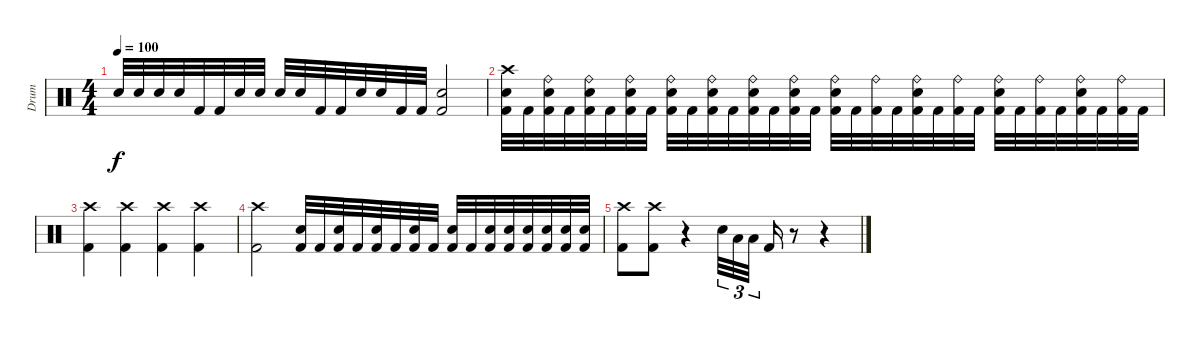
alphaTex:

\track ("Drum" "Drum") {instrument percussion}
\staff {score}
\articulation defaults
\ts (4 4)
\tempo 100
\clef neutral
\ks c "Snare (hit) 2".32{dy f} "Snare (hit) 2".32 "Snare (hit) 2".32 "Snare (hit) 2".32 "Kick (hit) 2".32 "Kick (hit) 2".32 "Snare (hit) 2".32 "Snare (hit) 2".32 "Snare (hit) 2".32 "Snare (hit) 2".32 "Kick (hit) 2".32 "Kick (hit) 2".32 "Snare (hit) 2".32 "Snare (hit) 2".32 "Kick (hit) 2".32 "Kick (hit) 2".32
("Snare (hit) 2" "Kick (hit) 2").2 |
("Crash high (hit)" "Snare (hit) 2" "Kick (hit) 2").32 "Kick (hit) 2".32 ("Ride (bell)" "Snare (hit) 2" "Kick (hit) 2").32 "Kick (hit) 2".32 ("Ride (bell)" "Snare (hit) 2" "Kick (hit) 2").32 "Kick (hit) 2".32 ("Ride (bell)" "Snare (hit) 2" "Kick (hit) 2").32 "Kick (hit) 2".32 ("Ride (bell)" "Snare (hit) 2" "Kick (hit) 2").32 "Kick (hit) 2".32 ("Ride (bell)" "Snare (hit) 2" "Kick (hit) 2").32 "Kick (hit) 2".32 ("Ride (bell)" "Snare (hit) 2" "Kick (hit) 2").32 "Kick (hit) 2".32 ("Ride (bell)" "Snare (hit) 2" "Kick (hit) 2").32 "Kick (hit) 2".32 ("Ride (bell)" "Snare (hit) 2" "Kick (hit) 2").32 "Kick (hit) 2".32 ("Ride (bell)" "Kick (hit) 2").32 "Kick (hit) 2".32 ("Ride (bell)" "Snare (hit) 2" "Kick (hit) 2").32 "Kick (hit) 2".32 ("Ride (bell)" "Kick (hit) 2").32 "Kick (hit) 2".32 ("Ride (bell)" "Snare (hit) 2" "Kick (hit) 2").32 "Kick (hit) 2".32 ("Ride (bell)" "Kick (hit) 2").32 "Kick (hit) 2".32 ("Ride (bell)" "Snare (hit) 2" "Kick (hit) 2").32 "Kick (hit) 2".32 ("Ride (bell)" "Kick (hit) 2").32 "Kick (hit) 2".32 |
("Crash high (hit)" "Kick (hit) 2").4 ("Crash high (hit)" "Kick (hit) 2").4 ("Crash high (hit)" "Kick (hit) 2").4 ("Crash high (hit)" "Kick (hit) 2").4 |
("Crash high (hit)" "Kick (hit) 2").2 ("Snare (hit) 2" "Kick (hit) 2").32 "Kick (hit) 2".32 ("Snare (hit) 2" "Kick (hit) 2").32 "Kick (hit) 2".32 ("Snare (hit) 2" "Kick (hit) 2").32 "Kick (hit) 2".32 ("Snare (hit) 2" "Kick (hit) 2").32 "Kick (hit) 2".32 ("Snare (hit) 2" "Kick (hit) 2").32 "Kick (hit) 2".32 ("Snare (hit) 2" "Kick (hit) 2").32 ("Snare (hit) 2" "Kick (hit) 2").32 ("Snare (hit) 2" "Kick (hit) 2").32 ("Snare (hit) 2" "Kick (hit) 2").32 ("Snare (hit) 2" "Kick (hit) 2").32 ("Snare (hit) 2" "Kick (hit) 2").32 |
("Crash high (hit)" "Kick (hit) 2").8 ("Crash high (hit)" "Kick (hit) 2").8 r.4 "Snare (hit) 2".32{tu (3 2)} "Low Tom (hit)".32{tu (3 2)} "Low Floor Tom (hit)".32{tu (3 2)} "Kick (hit) 2".16 r.8 r.4
